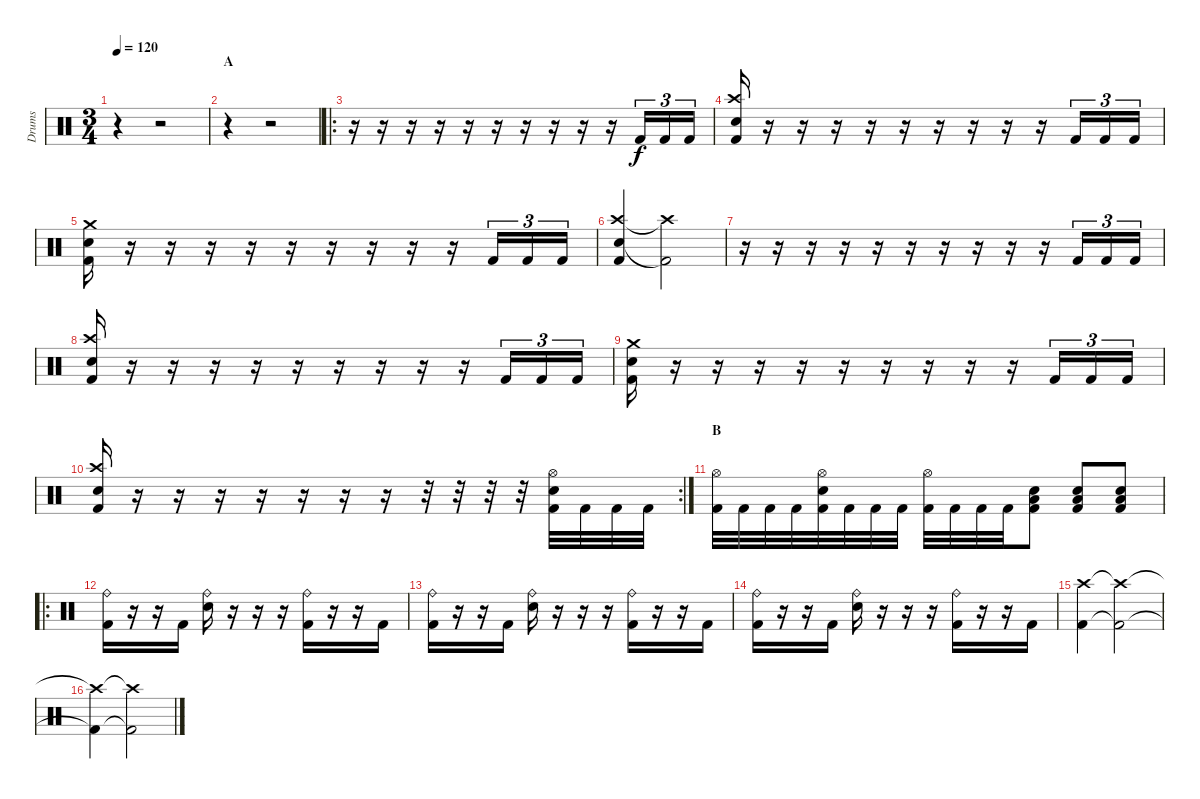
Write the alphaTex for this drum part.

\track ("Drums" "Drums") {instrument percussion}
\staff {score}
\articulation defaults
\ts (3 4)
\tempo 120
\clef neutral
\ks c
r.4{dy f} r.2 |
\section ("" "A")
r.4 r.2 |
\ro
r.16 r.16 r.16 r.16 r.16 r.16 r.16 r.16 r.16 r.16 "Kick (hit) 2".16{tu (3 2)} "Kick (hit) 2".16{tu (3 2)} "Kick (hit) 2".16{tu (3 2)} |
("Crash high (hit)" "Electric Snare (hit)" "Kick (hit) 2").16 r.16 r.16 r.16 r.16 r.16 r.16 r.16 r.16 r.16 "Kick (hit) 2".16{tu (3 2)} "Kick (hit) 2".16{tu (3 2)} "Kick (hit) 2".16{tu (3 2)} |
("Crash medium (hit)" "Electric Snare (hit)" "Kick (hit) 2").16 r.16 r.16 r.16 r.16 r.16 r.16 r.16 r.16 r.16 "Kick (hit) 2".16{tu (3 2)} "Kick (hit) 2".16{tu (3 2)} "Kick (hit) 2".16{tu (3 2)} |
("Crash high (hit)" "Electric Snare (hit)" "Kick (hit) 2").4 ("Crash high (hit)"{t} "Kick (hit) 2"{t}).2 |
r.16 r.16 r.16 r.16 r.16 r.16 r.16 r.16 r.16 r.16 "Kick (hit) 2".16{tu (3 2)} "Kick (hit) 2".16{tu (3 2)} "Kick (hit) 2".16{tu (3 2)} |
("Crash high (hit)" "Electric Snare (hit)" "Kick (hit) 2").16 r.16 r.16 r.16 r.16 r.16 r.16 r.16 r.16 r.16 "Kick (hit) 2".16{tu (3 2)} "Kick (hit) 2".16{tu (3 2)} "Kick (hit) 2".16{tu (3 2)} |
("Crash medium (hit)" "Electric Snare (hit)" "Kick (hit) 2").16 r.16 r.16 r.16 r.16 r.16 r.16 r.16 r.16 r.16 "Kick (hit) 2".16{tu (3 2)} "Kick (hit) 2".16{tu (3 2)} "Kick (hit) 2".16{tu (3 2)} |
\rc 2
("Crash high (hit)" "Electric Snare (hit)" "Kick (hit) 2").16 r.16 r.16 r.16 r.16 r.16 r.16 r.16 r.32 r.32 r.32 r.32 ("Hi-Hat (open)" "Electric Snare (hit)" "Kick (hit) 2").32 "Kick (hit) 2".32 "Kick (hit) 2".32 "Kick (hit) 2".32 |
\section ("" "B")
("Hi-Hat (open)" "Kick (hit) 2").32 "Kick (hit) 2".32 "Kick (hit) 2".32 "Kick (hit) 2".32 ("Hi-Hat (open)" "Electric Snare (hit)" "Kick (hit) 2").32 "Kick (hit) 2".32 "Kick (hit) 2".32 "Kick (hit) 2".32 ("Hi-Hat (open)" "Kick (hit) 2").32 "Kick (hit) 2".32 "Kick (hit) 2".32 "Kick (hit) 2".32 ("Electric Snare (hit)" "Low Floor Tom (hit)" "Kick (hit) 2").8 ("Electric Snare (hit)" "Low Floor Tom (hit)" "Kick (hit) 2").8 ("Electric Snare (hit)" "Low Floor Tom (hit)" "Kick (hit) 2").8 |
\ro
("Kick (hit) 2" "Ride (bell)").16 r.16 r.16 "Kick (hit) 2".16 ("Electric Snare (hit)" "Ride (bell)").16 r.16 r.16 r.16 ("Kick (hit) 2" "Ride (bell)").16 r.16 r.16 "Kick (hit) 2".16 |
("Kick (hit) 2" "Ride (bell)").16 r.16 r.16 "Kick (hit) 2".16 ("Electric Snare (hit)" "Ride (bell)").16 r.16 r.16 r.16 ("Kick (hit) 2" "Ride (bell)").16 r.16 r.16 "Kick (hit) 2".16 |
("Kick (hit) 2" "Ride (bell)").16 r.16 r.16 "Kick (hit) 2".16 ("Electric Snare (hit)" "Ride (bell)").16 r.16 r.16 r.16 ("Kick (hit) 2" "Ride (bell)").16 r.16 r.16 "Kick (hit) 2".16 |
("Crash high (hit)" "Kick (hit) 2").4 ("Crash high (hit)"{t} "Kick (hit) 2"{t}).2 |
("Crash high (hit)"{t} "Kick (hit) 2"{t}).4 ("Crash high (hit)"{t} "Kick (hit) 2"{t}).2
